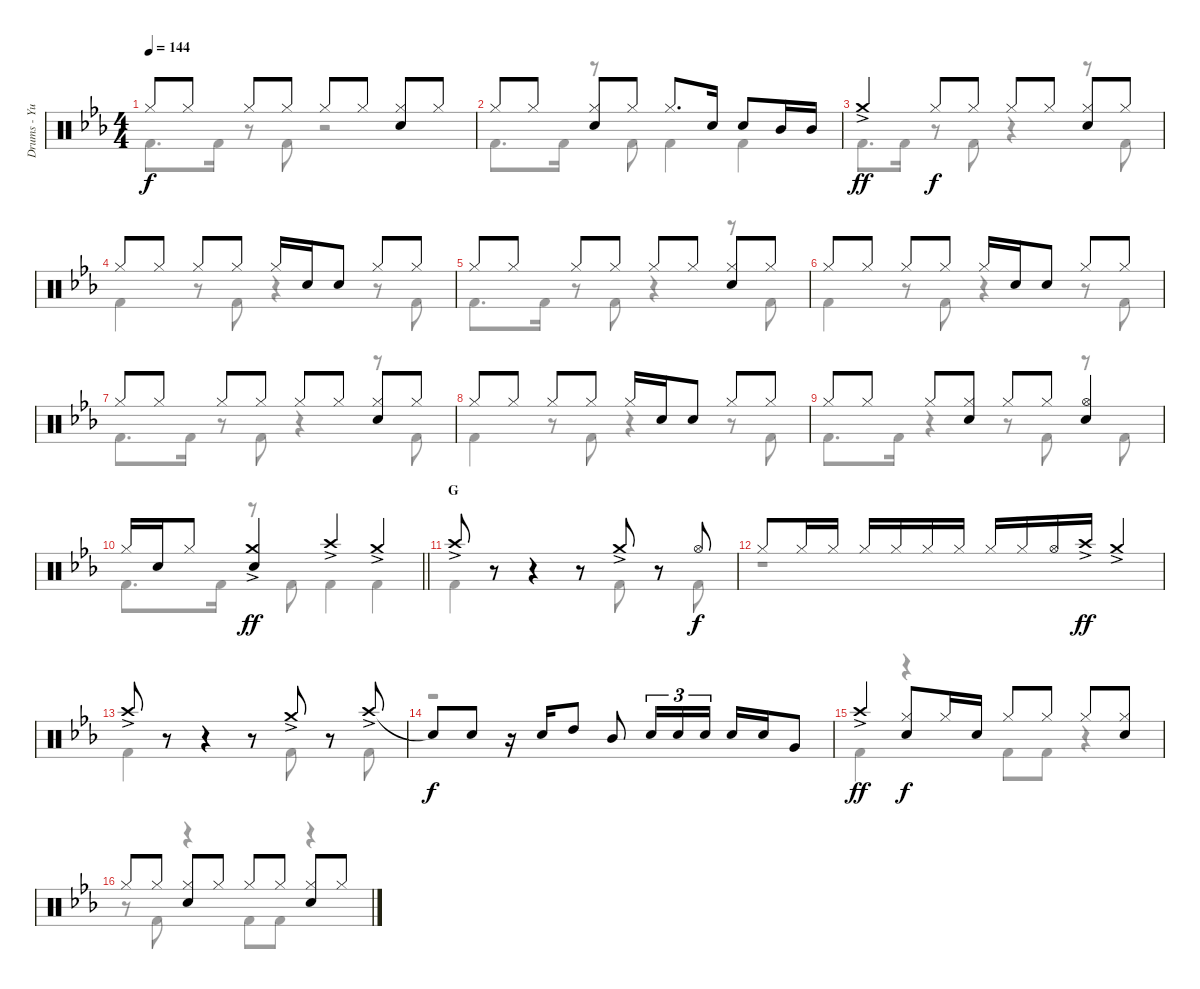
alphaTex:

\track ("Drums - Yuuya" "Drums - Yu") {instrument percussion}
\staff {score}
\articulation defaults
\voice
\ts (4 4)
\tempo 144
\clef neutral
\ks eb "Hi-Hat (closed)".8{dy f} "Hi-Hat (closed)".8 "Hi-Hat (closed)".8 "Hi-Hat (closed)".8 "Hi-Hat (closed)".8 "Hi-Hat (closed)".8
("Hi-Hat (closed)" "Snare (hit) 2").8 "Hi-Hat (closed)".8 |
"Hi-Hat (closed)".8 "Hi-Hat (closed)".8 ("Hi-Hat (closed)" "Snare (hit) 2").8 "Hi-Hat (closed)".8 "Hi-Hat (closed)".8{d} "Snare (hit) 2".16 "Snare (hit) 2".8 "Mid Tom (hit)".16 "Mid Tom (hit)".16 |
"Crash medium (hit)"{ac}.4{dy ff} "Hi-Hat (closed)".8{dy f} "Hi-Hat (closed)".8 "Hi-Hat (closed)".8 "Hi-Hat (closed)".8 ("Hi-Hat (closed)" "Snare (hit) 2").8 "Hi-Hat (closed)".8 |
"Hi-Hat (closed)".8 "Hi-Hat (closed)".8 "Hi-Hat (closed)".8 "Hi-Hat (closed)".8 "Hi-Hat (closed)".16 "Snare (hit) 2".16 "Snare (hit) 2".8 "Hi-Hat (closed)".8 "Hi-Hat (closed)".8 |
"Hi-Hat (closed)".8 "Hi-Hat (closed)".8 "Hi-Hat (closed)".8 "Hi-Hat (closed)".8 "Hi-Hat (closed)".8 "Hi-Hat (closed)".8 ("Hi-Hat (closed)" "Snare (hit) 2").8 "Hi-Hat (closed)".8 |
"Hi-Hat (closed)".8 "Hi-Hat (closed)".8 "Hi-Hat (closed)".8 "Hi-Hat (closed)".8 "Hi-Hat (closed)".16 "Snare (hit) 2".16 "Snare (hit) 2".8 "Hi-Hat (closed)".8 "Hi-Hat (closed)".8 |
"Hi-Hat (closed)".8 "Hi-Hat (closed)".8 "Hi-Hat (closed)".8 "Hi-Hat (closed)".8 "Hi-Hat (closed)".8 "Hi-Hat (closed)".8 ("Hi-Hat (closed)" "Snare (hit) 2").8 "Hi-Hat (closed)".8 |
"Hi-Hat (closed)".8 "Hi-Hat (closed)".8 "Hi-Hat (closed)".8 "Hi-Hat (closed)".8 "Hi-Hat (closed)".16 "Snare (hit) 2".16 "Snare (hit) 2".8 "Hi-Hat (closed)".8 "Hi-Hat (closed)".8 |
"Hi-Hat (closed)".8 "Hi-Hat (closed)".8 "Hi-Hat (closed)".8 ("Hi-Hat (closed)" "Snare (hit) 2").8 "Hi-Hat (closed)".8 "Hi-Hat (closed)".8 ("Hi-Hat (open)" "Snare (hit) 2").4 |
\barLineRight lightlight "Hi-Hat (closed)".16 "Snare (hit) 2".16 "Hi-Hat (closed)".8
("Crash medium (hit)"{ac} "Snare (hit) 2").4{dy ff} "Crash high (hit)"{ac}.4 "Crash medium (hit)"{ac}.4 |
\section ("" "G")
"Crash high (hit)"{ac}.8 r.8 r.4 r.8 "Crash medium (hit)"{ac}.8 r.8 "Hi-Hat (open)".8{dy f} |
"Hi-Hat (closed)".8 "Hi-Hat (closed)".16 "Hi-Hat (closed)".16 "Hi-Hat (closed)".16 "Hi-Hat (closed)".16 "Hi-Hat (closed)".16 "Hi-Hat (closed)".16 "Hi-Hat (closed)".16 "Hi-Hat (closed)".16 "Hi-Hat (open)".16 "Crash high (hit)"{ac}.16{dy ff} "Crash medium (hit)"{ac}.4 |
"Crash high (hit)"{ac}.8 r.8 r.4 r.8 "Crash medium (hit)"{ac}.8 r.8 "Crash high (hit)"{ac}.8 |
"Snare (hit)"{t}.8{dy f} "Snare (hit) 2".8 r.16 "Snare (hit) 2".16 "High Tom (hit)".8 "Mid Tom (hit)".8 "Snare (hit) 2".16{tu (3 2)} "Snare (hit) 2".16{tu (3 2)} "Snare (hit) 2".16{tu (3 2)} "Snare (hit) 2".16 "Snare (hit) 2".16 "Very Low Tom (hit)".8 |
"Crash high (hit)"{ac}.4{dy ff} ("Hi-Hat (closed)" "Snare (hit) 2").8{dy f} "Hi-Hat (closed)".16 "Snare (hit) 2".16 "Hi-Hat (closed)".8 "Hi-Hat (closed)".8 "Hi-Hat (closed)".8 ("Hi-Hat (closed)" "Snare (hit) 2").8 |
"Hi-Hat (closed)".8 "Hi-Hat (closed)".8 ("Hi-Hat (closed)" "Snare (hit) 2").8 "Hi-Hat (closed)".8 "Hi-Hat (closed)".8 "Hi-Hat (closed)".8 ("Hi-Hat (closed)" "Snare (hit) 2").8 "Hi-Hat (closed)".8
\voice
\clef neutral
\ottava regular
\simile none
\ks eb "Kick (hit) 2".8{d dy f} "Kick (hit) 2".16
r.8 "Kick (hit) 2".8 r.2 |
"Kick (hit) 2".8{d} "Kick (hit) 2".16 r.8 "Kick (hit) 2".8 "Kick (hit) 2".4 "Kick (hit) 2".4 |
"Kick (hit) 2".8{d} "Kick (hit) 2".16 r.8 "Kick (hit) 2".8 r.4 r.8 "Kick (hit) 2".8 |
"Kick (hit) 2".4 r.8 "Kick (hit) 2".8 r.4 r.8 "Kick (hit) 2".8 |
"Kick (hit) 2".8{d} "Kick (hit) 2".16 r.8 "Kick (hit) 2".8 r.4 r.8 "Kick (hit) 2".8 |
"Kick (hit) 2".4 r.8 "Kick (hit) 2".8 r.4 r.8 "Kick (hit) 2".8 |
"Kick (hit) 2".8{d} "Kick (hit) 2".16 r.8 "Kick (hit) 2".8 r.4 r.8 "Kick (hit) 2".8 |
"Kick (hit) 2".4 r.8 "Kick (hit) 2".8 r.4 r.8 "Kick (hit) 2".8 |
"Kick (hit) 2".8{d} "Kick (hit) 2".16 r.4 r.8 "Kick (hit) 2".8 r.8 "Kick (hit) 2".8 |
\barLineRight lightlight "Kick (hit) 2".8{d} "Kick (hit) 2".16
r.8 "Kick (hit) 2".8 "Kick (hit) 2".4 "Kick (hit) 2".4 |
"Kick (hit) 2".4 r.4 r.8 "Kick (hit) 2".8 r.8 "Kick (hit) 2".8 |
r.1 |
"Kick (hit) 2".4 r.4 r.8 "Kick (hit) 2".8 r.8 "Kick (hit) 2".8 |
r.1 |
"Kick (hit) 2".4 r.4 "Kick (hit) 2".8 "Kick (hit) 2".8 r.4 |
r.8 "Kick (hit) 2".8 r.4 "Kick (hit) 2".8 "Kick (hit) 2".8 r.4
